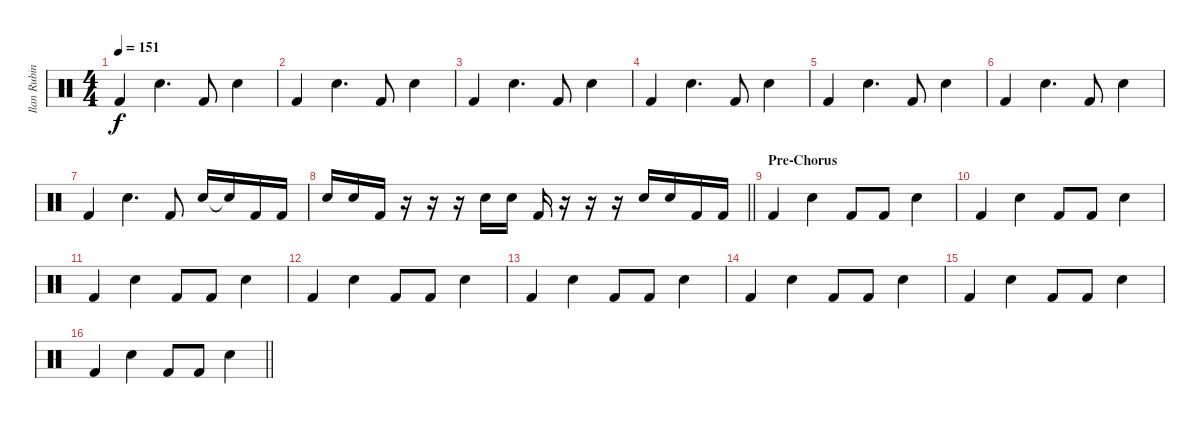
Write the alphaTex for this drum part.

\track ("Ilan Rubin [Drums]" "Ilan Rubin") {instrument percussion}
\staff {score}
\articulation defaults
\ts (4 4)
\tempo 151
\clef neutral
\ks c "Kick (hit) 2".4{dy f} "Snare (hit) 2".4{d} "Kick (hit) 2".8 "Snare (hit) 2".4
|
"Kick (hit) 2".4 "Snare (hit) 2".4{d} "Kick (hit) 2".8 "Snare (hit) 2".4 |
"Kick (hit) 2".4 "Snare (hit) 2".4{d} "Kick (hit) 2".8 "Snare (hit) 2".4 |
"Kick (hit) 2".4 "Snare (hit) 2".4{d} "Kick (hit) 2".8 "Snare (hit) 2".4 |
"Kick (hit) 2".4 "Snare (hit) 2".4{d} "Kick (hit) 2".8 "Snare (hit) 2".4 |
"Kick (hit) 2".4 "Snare (hit) 2".4{d} "Kick (hit) 2".8 "Snare (hit) 2".4 |
"Kick (hit) 2".4 "Snare (hit) 2".4{d} "Kick (hit) 2".8 "Snare (hit) 2".16 "Snare (hit)"{t}.16 "Kick (hit) 2".16 "Kick (hit) 2".16 |
\barLineRight lightlight "Snare (hit) 2".16 "Snare (hit) 2".16 "Kick (hit) 2".16
r.16 r.16 r.16 "Snare (hit) 2".16 "Snare (hit) 2".16 "Kick (hit) 2".16 r.16 r.16 r.16 "Snare (hit) 2".16 "Snare (hit) 2".16 "Kick (hit) 2".16 "Kick (hit) 2".16 |
\section ("" "Pre-Chorus")
"Kick (hit) 2".4 "Snare (hit) 2".4 "Kick (hit) 2".8 "Kick (hit) 2".8 "Snare (hit) 2".4 |
"Kick (hit) 2".4 "Snare (hit) 2".4 "Kick (hit) 2".8 "Kick (hit) 2".8 "Snare (hit) 2".4 |
"Kick (hit) 2".4 "Snare (hit) 2".4 "Kick (hit) 2".8 "Kick (hit) 2".8 "Snare (hit) 2".4 |
"Kick (hit) 2".4 "Snare (hit) 2".4 "Kick (hit) 2".8 "Kick (hit) 2".8 "Snare (hit) 2".4 |
"Kick (hit) 2".4 "Snare (hit) 2".4 "Kick (hit) 2".8 "Kick (hit) 2".8 "Snare (hit) 2".4 |
"Kick (hit) 2".4 "Snare (hit) 2".4 "Kick (hit) 2".8 "Kick (hit) 2".8 "Snare (hit) 2".4 |
"Kick (hit) 2".4 "Snare (hit) 2".4 "Kick (hit) 2".8 "Kick (hit) 2".8 "Snare (hit) 2".4 |
\barLineRight lightlight "Kick (hit) 2".4 "Snare (hit) 2".4 "Kick (hit) 2".8 "Kick (hit) 2".8 "Snare (hit) 2".4
